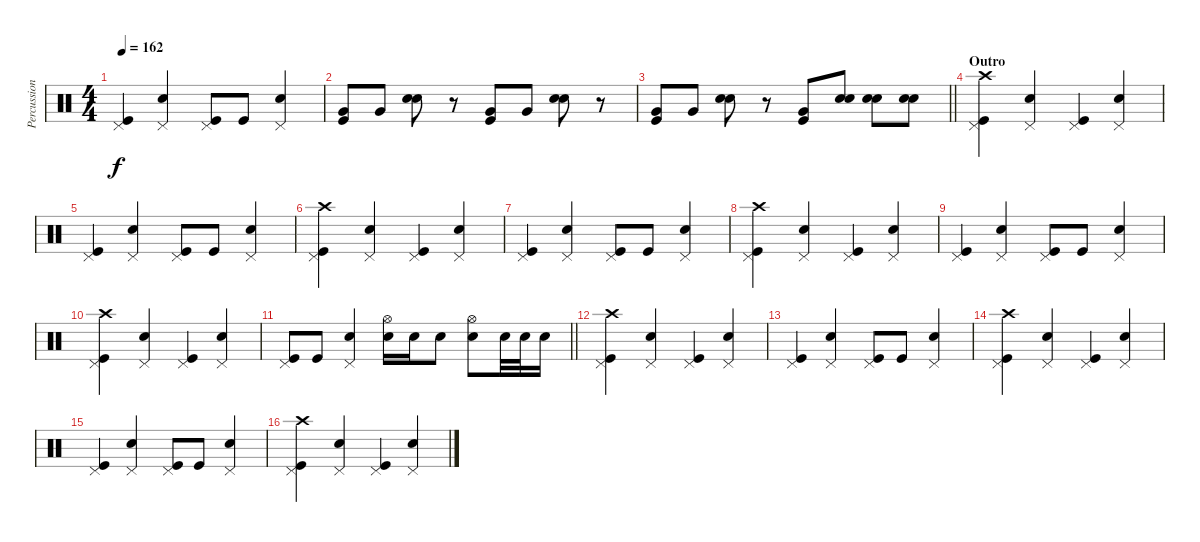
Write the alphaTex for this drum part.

\track ("Percussioni" "Percussion") {instrument percussion}
\staff {score}
\articulation defaults
\ts (4 4)
\tempo 162
\clef neutral
\ks c
("Pedal Hi-Hat (hit)" "Kick (hit)").4{dy f} ("Pedal Hi-Hat (hit)" "Snare (hit) 2").4 ("Pedal Hi-Hat (hit)" "Kick (hit)").8 "Kick (hit)".8 ("Pedal Hi-Hat (hit)" "Snare (hit) 2").4 |
("Very Low Tom (hit)" "Kick (hit)").8 "Very Low Tom (hit)".8 ("Snare (hit) 2" "Snare (hit) 2").8 r.8 ("Very Low Tom (hit)" "Kick (hit)").8 "Very Low Tom (hit)".8 ("Snare (hit) 2" "Snare (hit) 2").8 r.8 |
\barLineRight lightlight
("Very Low Tom (hit)" "Kick (hit)").8 "Very Low Tom (hit)".8 ("Snare (hit) 2" "Snare (hit) 2").8 r.8 ("Very Low Tom (hit)" "Kick (hit)").8 ("Snare (hit) 2" "Snare (hit) 2").8 ("Snare (hit) 2" "Snare (hit) 2").8 ("Snare (hit) 2" "Snare (hit) 2").8 |
\section ("" "Outro")
("Pedal Hi-Hat (hit)" "Kick (hit)" "Crash high (hit)").4 ("Pedal Hi-Hat (hit)" "Snare (hit) 2").4 ("Pedal Hi-Hat (hit)" "Kick (hit)").4 ("Pedal Hi-Hat (hit)" "Snare (hit) 2").4 |
("Pedal Hi-Hat (hit)" "Kick (hit)").4 ("Pedal Hi-Hat (hit)" "Snare (hit) 2").4 ("Pedal Hi-Hat (hit)" "Kick (hit)").8 "Kick (hit)".8 ("Pedal Hi-Hat (hit)" "Snare (hit) 2").4 |
("Pedal Hi-Hat (hit)" "Kick (hit)" "Crash high (hit)").4 ("Pedal Hi-Hat (hit)" "Snare (hit) 2").4 ("Pedal Hi-Hat (hit)" "Kick (hit)").4 ("Pedal Hi-Hat (hit)" "Snare (hit) 2").4 |
("Pedal Hi-Hat (hit)" "Kick (hit)").4 ("Pedal Hi-Hat (hit)" "Snare (hit) 2").4 ("Pedal Hi-Hat (hit)" "Kick (hit)").8 "Kick (hit)".8 ("Pedal Hi-Hat (hit)" "Snare (hit) 2").4 |
("Pedal Hi-Hat (hit)" "Kick (hit)" "Crash high (hit)").4 ("Pedal Hi-Hat (hit)" "Snare (hit) 2").4 ("Pedal Hi-Hat (hit)" "Kick (hit)").4 ("Pedal Hi-Hat (hit)" "Snare (hit) 2").4 |
("Pedal Hi-Hat (hit)" "Kick (hit)").4 ("Pedal Hi-Hat (hit)" "Snare (hit) 2").4 ("Pedal Hi-Hat (hit)" "Kick (hit)").8 "Kick (hit)".8 ("Pedal Hi-Hat (hit)" "Snare (hit) 2").4 |
("Pedal Hi-Hat (hit)" "Kick (hit)" "Crash high (hit)").4 ("Pedal Hi-Hat (hit)" "Snare (hit) 2").4 ("Pedal Hi-Hat (hit)" "Kick (hit)").4 ("Pedal Hi-Hat (hit)" "Snare (hit) 2").4 |
\barLineRight lightlight
("Pedal Hi-Hat (hit)" "Kick (hit)").8 "Kick (hit)".8 ("Pedal Hi-Hat (hit)" "Snare (hit) 2").4 ("Snare (hit) 2" "Hi-Hat (open)").16 "Snare (hit) 2".16 "Snare (hit) 2".8 ("Snare (hit) 2" "Hi-Hat (open)").8 "Snare (hit) 2".32 "Snare (hit) 2".32 "Snare (hit) 2".16 |
("Pedal Hi-Hat (hit)" "Kick (hit)" "Crash high (hit)").4 ("Pedal Hi-Hat (hit)" "Snare (hit) 2").4 ("Pedal Hi-Hat (hit)" "Kick (hit)").4 ("Pedal Hi-Hat (hit)" "Snare (hit) 2").4 |
("Pedal Hi-Hat (hit)" "Kick (hit)").4 ("Pedal Hi-Hat (hit)" "Snare (hit) 2").4 ("Pedal Hi-Hat (hit)" "Kick (hit)").8 "Kick (hit)".8 ("Pedal Hi-Hat (hit)" "Snare (hit) 2").4 |
("Pedal Hi-Hat (hit)" "Kick (hit)" "Crash high (hit)").4 ("Pedal Hi-Hat (hit)" "Snare (hit) 2").4 ("Pedal Hi-Hat (hit)" "Kick (hit)").4 ("Pedal Hi-Hat (hit)" "Snare (hit) 2").4 |
("Pedal Hi-Hat (hit)" "Kick (hit)").4 ("Pedal Hi-Hat (hit)" "Snare (hit) 2").4 ("Pedal Hi-Hat (hit)" "Kick (hit)").8 "Kick (hit)".8 ("Pedal Hi-Hat (hit)" "Snare (hit) 2").4 |
("Pedal Hi-Hat (hit)" "Kick (hit)" "Crash high (hit)").4 ("Pedal Hi-Hat (hit)" "Snare (hit) 2").4 ("Pedal Hi-Hat (hit)" "Kick (hit)").4 ("Pedal Hi-Hat (hit)" "Snare (hit) 2").4
